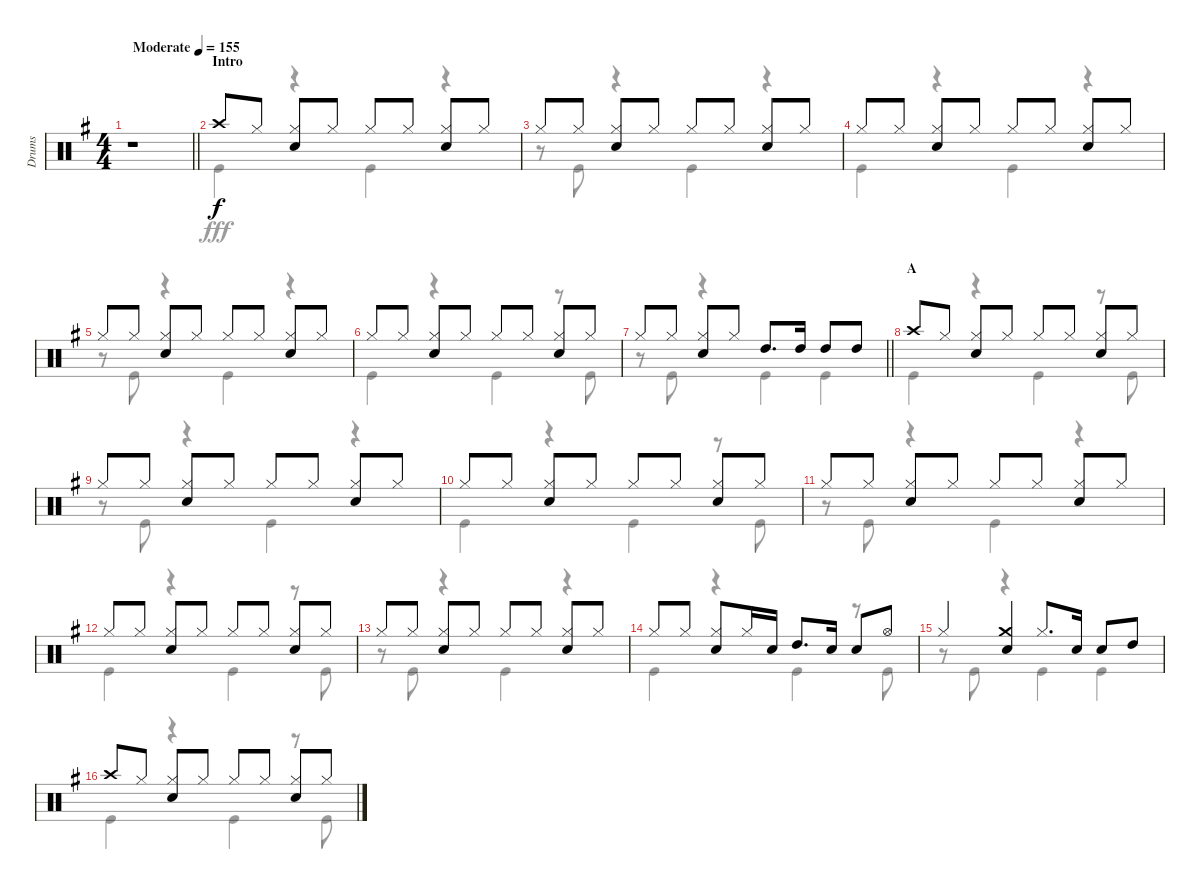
\track ("Drums" "Drums") {instrument percussion}
\staff {score}
\articulation defaults
\voice
\ts (4 4)
\tempo (155 "Moderate")
\clef neutral
\barLineRight lightlight
\ks g
r.1{dy f} |
\section ("" "Intro")
"Crash high (hit)".8 "Hi-Hat (closed)".8 ("Hi-Hat (closed)" "Snare (hit) 2").8 "Hi-Hat (closed)".8 "Hi-Hat (closed)".8 "Hi-Hat (closed)".8 ("Hi-Hat (closed)" "Snare (hit) 2").8 "Hi-Hat (closed)".8 |
"Hi-Hat (closed)".8 "Hi-Hat (closed)".8 ("Hi-Hat (closed)" "Snare (hit) 2").8 "Hi-Hat (closed)".8 "Hi-Hat (closed)".8 "Hi-Hat (closed)".8 ("Hi-Hat (closed)" "Snare (hit) 2").8 "Hi-Hat (closed)".8 |
"Hi-Hat (closed)".8 "Hi-Hat (closed)".8 ("Hi-Hat (closed)" "Snare (hit) 2").8 "Hi-Hat (closed)".8 "Hi-Hat (closed)".8 "Hi-Hat (closed)".8 ("Hi-Hat (closed)" "Snare (hit) 2").8 "Hi-Hat (closed)".8 |
"Hi-Hat (closed)".8 "Hi-Hat (closed)".8 ("Hi-Hat (closed)" "Snare (hit) 2").8 "Hi-Hat (closed)".8 "Hi-Hat (closed)".8 "Hi-Hat (closed)".8 ("Hi-Hat (closed)" "Snare (hit) 2").8 "Hi-Hat (closed)".8 |
"Hi-Hat (closed)".8 "Hi-Hat (closed)".8 ("Hi-Hat (closed)" "Snare (hit) 2").8 "Hi-Hat (closed)".8 "Hi-Hat (closed)".8 "Hi-Hat (closed)".8 ("Hi-Hat (closed)" "Snare (hit) 2").8 "Hi-Hat (closed)".8 |
\barLineRight lightlight "Hi-Hat (closed)".8 "Hi-Hat (closed)".8
("Hi-Hat (closed)" "Snare (hit) 2").8 "Hi-Hat (closed)".8 "High Tom (hit)".8{d} "High Tom (hit)".16 "High Tom (hit)".8 "High Tom (hit)".8 |
\section ("" "A")
"Crash high (hit)".8 "Hi-Hat (closed)".8 ("Hi-Hat (closed)" "Snare (hit) 2").8 "Hi-Hat (closed)".8 "Hi-Hat (closed)".8 "Hi-Hat (closed)".8 ("Hi-Hat (closed)" "Snare (hit) 2").8 "Hi-Hat (closed)".8 |
"Hi-Hat (closed)".8 "Hi-Hat (closed)".8 ("Hi-Hat (closed)" "Snare (hit) 2").8 "Hi-Hat (closed)".8 "Hi-Hat (closed)".8 "Hi-Hat (closed)".8 ("Hi-Hat (closed)" "Snare (hit) 2").8 "Hi-Hat (closed)".8 |
"Hi-Hat (closed)".8 "Hi-Hat (closed)".8 ("Hi-Hat (closed)" "Snare (hit) 2").8 "Hi-Hat (closed)".8 "Hi-Hat (closed)".8 "Hi-Hat (closed)".8 ("Hi-Hat (closed)" "Snare (hit) 2").8 "Hi-Hat (closed)".8 |
"Hi-Hat (closed)".8 "Hi-Hat (closed)".8 ("Hi-Hat (closed)" "Snare (hit) 2").8 "Hi-Hat (closed)".8 "Hi-Hat (closed)".8 "Hi-Hat (closed)".8 ("Hi-Hat (closed)" "Snare (hit) 2").8 "Hi-Hat (closed)".8 |
"Hi-Hat (closed)".8 "Hi-Hat (closed)".8 ("Hi-Hat (closed)" "Snare (hit) 2").8 "Hi-Hat (closed)".8 "Hi-Hat (closed)".8 "Hi-Hat (closed)".8 ("Hi-Hat (closed)" "Snare (hit) 2").8 "Hi-Hat (closed)".8 |
"Hi-Hat (closed)".8 "Hi-Hat (closed)".8 ("Hi-Hat (closed)" "Snare (hit) 2").8 "Hi-Hat (closed)".8 "Hi-Hat (closed)".8 "Hi-Hat (closed)".8 ("Hi-Hat (closed)" "Snare (hit) 2").8 "Hi-Hat (closed)".8 |
"Hi-Hat (closed)".8 "Hi-Hat (closed)".8 ("Hi-Hat (closed)" "Snare (hit) 2").8 "Hi-Hat (closed)".16 "Snare (hit) 2".16 "High Tom (hit)".8{d} "Snare (hit) 2".16 "Snare (hit) 2".8 "Hi-Hat (open)".8 |
"Hi-Hat (closed)".4 ("Crash medium (hit)" "Snare (hit) 2").4 "Hi-Hat (closed)".8{d} "Snare (hit) 2".16 "Snare (hit) 2".8 "High Tom (hit)".8 |
"Crash high (hit)".8 "Hi-Hat (closed)".8 ("Hi-Hat (closed)" "Snare (hit) 2").8 "Hi-Hat (closed)".8 "Hi-Hat (closed)".8 "Hi-Hat (closed)".8 ("Hi-Hat (closed)" "Snare (hit) 2").8 "Hi-Hat (closed)".8
\voice
\clef neutral
\ottava regular
\simile none
\barLineRight lightlight
\ks g
r.1{dy fff} |
"Kick (hit)".4 r.4 "Kick (hit)".4 r.4 |
r.8 "Kick (hit)".8 r.4 "Kick (hit)".4 r.4 |
"Kick (hit)".4 r.4 "Kick (hit)".4 r.4 |
r.8 "Kick (hit)".8 r.4 "Kick (hit)".4 r.4 |
"Kick (hit)".4 r.4 "Kick (hit)".4 r.8 "Kick (hit)".8 |
\barLineRight lightlight
r.8 "Kick (hit)".8 r.4 "Kick (hit)".4 "Kick (hit)".4 |
"Kick (hit)".4 r.4 "Kick (hit)".4 r.8 "Kick (hit)".8 |
r.8 "Kick (hit)".8 r.4 "Kick (hit)".4 r.4 |
"Kick (hit)".4 r.4 "Kick (hit)".4 r.8 "Kick (hit)".8 |
r.8 "Kick (hit)".8 r.4 "Kick (hit)".4 r.4 |
"Kick (hit)".4 r.4 "Kick (hit)".4 r.8 "Kick (hit)".8 |
r.8 "Kick (hit)".8 r.4 "Kick (hit)".4 r.4 |
"Kick (hit)".4 r.4 "Kick (hit)".4 r.8 "Kick (hit)".8 |
r.8 "Kick (hit)".8 r.4 "Kick (hit)".4 "Kick (hit)".4 |
"Kick (hit)".4 r.4 "Kick (hit)".4 r.8 "Kick (hit)".8
